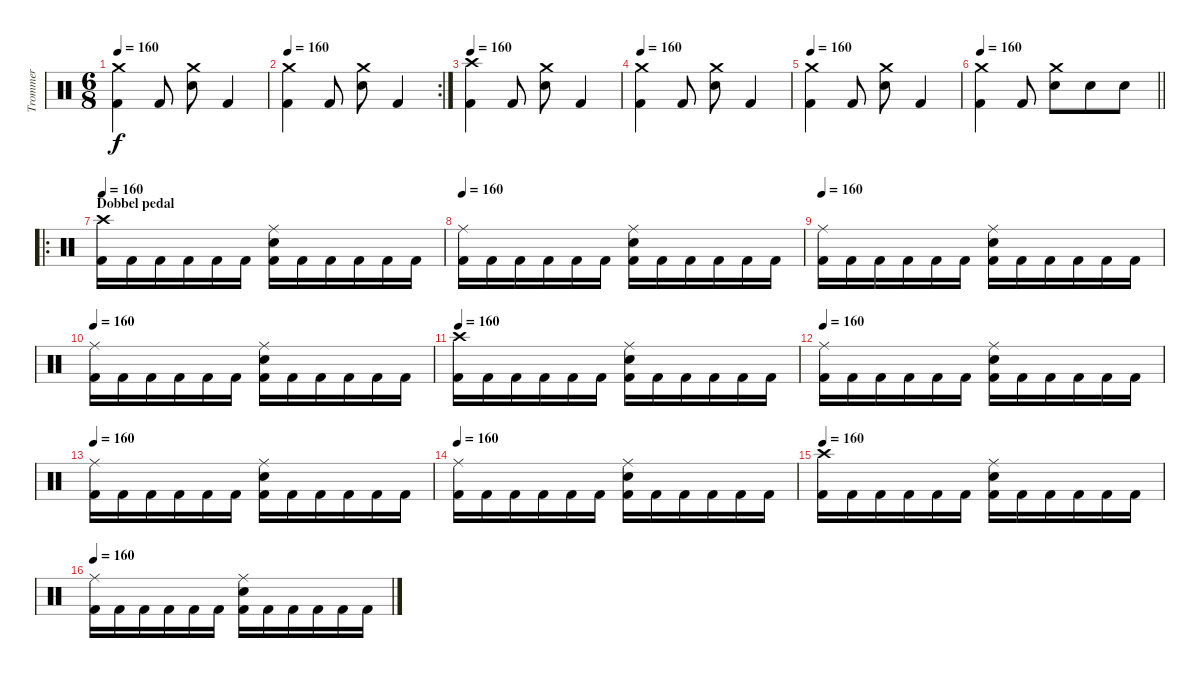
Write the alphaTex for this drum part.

\track ("Trommer" "Trommer") {instrument percussion}
\staff {score}
\articulation defaults
\ts (6 8)
\tempo 160
\clef neutral
\ks c
("Kick (hit) 2" "Crash medium (hit)").4{dy f} "Kick (hit) 2".8 ("Snare (hit) 2" "Crash medium (hit)").8 "Kick (hit) 2".4 |
\rc 2
\tempo 160
("Kick (hit) 2" "Crash medium (hit)").4 "Kick (hit) 2".8 ("Snare (hit) 2" "Crash medium (hit)").8 "Kick (hit) 2".4 |
\tempo 160
("Kick (hit) 2" "Crash high (hit)").4 "Kick (hit) 2".8 ("Snare (hit) 2" "Crash medium (hit)").8 "Kick (hit) 2".4 |
\tempo 160
("Kick (hit) 2" "Crash medium (hit)").4 "Kick (hit) 2".8 ("Snare (hit) 2" "Crash medium (hit)").8 "Kick (hit) 2".4 |
\tempo 160
("Kick (hit) 2" "Crash medium (hit)").4 "Kick (hit) 2".8 ("Snare (hit) 2" "Crash medium (hit)").8 "Kick (hit) 2".4 |
\tempo 160
\barLineRight lightlight
("Kick (hit) 2" "Crash medium (hit)").4 "Kick (hit) 2".8 ("Snare (hit) 2" "Crash medium (hit)").8 "Snare (hit) 2".8 "Snare (hit) 2".8 |
\ro
\section ("" "Dobbel pedal")
\tempo 160
("Kick (hit) 2" "Crash high (hit)").16 "Kick (hit) 2".16 "Kick (hit) 2".16 "Kick (hit) 2".16 "Kick (hit) 2".16 "Kick (hit) 2".16 ("Kick (hit) 2" "Snare (hit) 2" "Ride (middle)").16 "Kick (hit) 2".16 "Kick (hit) 2".16 "Kick (hit) 2".16 "Kick (hit) 2".16 "Kick (hit) 2".16 |
\tempo 160
("Kick (hit) 2" "Ride (middle)").16 "Kick (hit) 2".16 "Kick (hit) 2".16 "Kick (hit) 2".16 "Kick (hit) 2".16 "Kick (hit) 2".16 ("Kick (hit) 2" "Snare (hit) 2" "Ride (middle)").16 "Kick (hit) 2".16 "Kick (hit) 2".16 "Kick (hit) 2".16 "Kick (hit) 2".16 "Kick (hit) 2".16 |
\tempo 160
("Kick (hit) 2" "Ride (middle)").16 "Kick (hit) 2".16 "Kick (hit) 2".16 "Kick (hit) 2".16 "Kick (hit) 2".16 "Kick (hit) 2".16 ("Kick (hit) 2" "Snare (hit) 2" "Ride (middle)").16 "Kick (hit) 2".16 "Kick (hit) 2".16 "Kick (hit) 2".16 "Kick (hit) 2".16 "Kick (hit) 2".16 |
\tempo 160
("Kick (hit) 2" "Ride (middle)").16 "Kick (hit) 2".16 "Kick (hit) 2".16 "Kick (hit) 2".16 "Kick (hit) 2".16 "Kick (hit) 2".16 ("Kick (hit) 2" "Snare (hit) 2" "Ride (middle)").16 "Kick (hit) 2".16 "Kick (hit) 2".16 "Kick (hit) 2".16 "Kick (hit) 2".16 "Kick (hit) 2".16 |
\tempo 160
("Kick (hit) 2" "Crash high (hit)").16 "Kick (hit) 2".16 "Kick (hit) 2".16 "Kick (hit) 2".16 "Kick (hit) 2".16 "Kick (hit) 2".16 ("Kick (hit) 2" "Snare (hit) 2" "Ride (middle)").16 "Kick (hit) 2".16 "Kick (hit) 2".16 "Kick (hit) 2".16 "Kick (hit) 2".16 "Kick (hit) 2".16 |
\tempo 160
("Kick (hit) 2" "Ride (middle)").16 "Kick (hit) 2".16 "Kick (hit) 2".16 "Kick (hit) 2".16 "Kick (hit) 2".16 "Kick (hit) 2".16 ("Kick (hit) 2" "Snare (hit) 2" "Ride (middle)").16 "Kick (hit) 2".16 "Kick (hit) 2".16 "Kick (hit) 2".16 "Kick (hit) 2".16 "Kick (hit) 2".16 |
\tempo 160
("Kick (hit) 2" "Ride (middle)").16 "Kick (hit) 2".16 "Kick (hit) 2".16 "Kick (hit) 2".16 "Kick (hit) 2".16 "Kick (hit) 2".16 ("Kick (hit) 2" "Snare (hit) 2" "Ride (middle)").16 "Kick (hit) 2".16 "Kick (hit) 2".16 "Kick (hit) 2".16 "Kick (hit) 2".16 "Kick (hit) 2".16 |
\tempo 160
("Kick (hit) 2" "Ride (middle)").16 "Kick (hit) 2".16 "Kick (hit) 2".16 "Kick (hit) 2".16 "Kick (hit) 2".16 "Kick (hit) 2".16 ("Kick (hit) 2" "Snare (hit) 2" "Ride (middle)").16 "Kick (hit) 2".16 "Kick (hit) 2".16 "Kick (hit) 2".16 "Kick (hit) 2".16 "Kick (hit) 2".16 |
\tempo 160
("Kick (hit) 2" "Crash high (hit)").16 "Kick (hit) 2".16 "Kick (hit) 2".16 "Kick (hit) 2".16 "Kick (hit) 2".16 "Kick (hit) 2".16 ("Kick (hit) 2" "Snare (hit) 2" "Ride (middle)").16 "Kick (hit) 2".16 "Kick (hit) 2".16 "Kick (hit) 2".16 "Kick (hit) 2".16 "Kick (hit) 2".16 |
\tempo 160
("Kick (hit) 2" "Ride (middle)").16 "Kick (hit) 2".16 "Kick (hit) 2".16 "Kick (hit) 2".16 "Kick (hit) 2".16 "Kick (hit) 2".16 ("Kick (hit) 2" "Snare (hit) 2" "Ride (middle)").16 "Kick (hit) 2".16 "Kick (hit) 2".16 "Kick (hit) 2".16 "Kick (hit) 2".16 "Kick (hit) 2".16
